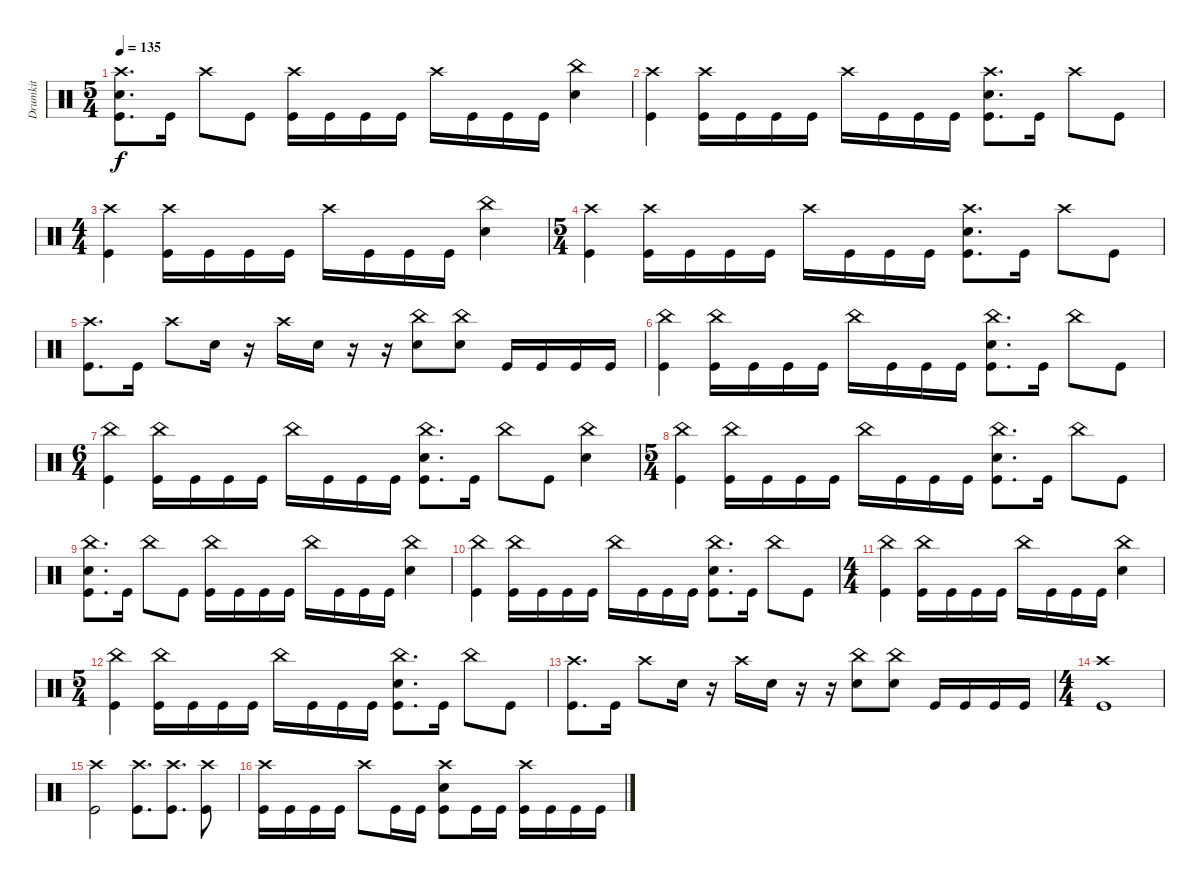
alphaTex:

\track ("Drumkit" "Drumkit") {instrument percussion}
\staff {score}
\articulation defaults
\ts (5 4)
\tempo 135
\clef neutral
\ks c
("Crash high (hit)" "Kick (hit)" "Snare (hit) 2").8{d dy f} "Kick (hit)".16 "Crash high (hit)".8 "Kick (hit)".8 ("Crash high (hit)" "Kick (hit)").16 "Kick (hit)".16 "Kick (hit)".16 "Kick (hit)".16 "Crash high (hit)".16 "Kick (hit)".16 "Kick (hit)".16 "Kick (hit)".16 ("China (hit)" "Snare (hit) 2").4 |
("Crash high (hit)" "Kick (hit)").4 ("Crash high (hit)" "Kick (hit)").16 "Kick (hit)".16 "Kick (hit)".16 "Kick (hit)".16 "Crash high (hit)".16 "Kick (hit)".16 "Kick (hit)".16 "Kick (hit)".16 ("Crash high (hit)" "Kick (hit)" "Snare (hit) 2").8{d} "Kick (hit)".16 "Crash high (hit)".8 "Kick (hit)".8 |
\ts (4 4)
("Crash high (hit)" "Kick (hit)").4 ("Crash high (hit)" "Kick (hit)").16 "Kick (hit)".16 "Kick (hit)".16 "Kick (hit)".16 "Crash high (hit)".16 "Kick (hit)".16 "Kick (hit)".16 "Kick (hit)".16 ("China (hit)" "Snare (hit) 2").4 |
\ts (5 4)
("Crash high (hit)" "Kick (hit)").4 ("Crash high (hit)" "Kick (hit)").16 "Kick (hit)".16 "Kick (hit)".16 "Kick (hit)".16 "Crash high (hit)".16 "Kick (hit)".16 "Kick (hit)".16 "Kick (hit)".16 ("Crash high (hit)" "Kick (hit)" "Snare (hit) 2").8{d} "Kick (hit)".16 "Crash high (hit)".8 "Kick (hit)".8 |
("Crash high (hit)" "Kick (hit)").8{d} "Kick (hit)".16 "Crash high (hit)".8 "Snare (hit) 2".16 r.16 "Crash high (hit)".16 "Snare (hit) 2".16 r.16 r.16 ("Snare (hit) 2" "China (hit)").8 ("China (hit)" "Snare (hit) 2").8 "Kick (hit)".16 "Kick (hit)".16 "Kick (hit)".16 "Kick (hit)".16 |
("China (hit)" "Kick (hit)").4 ("China (hit)" "Kick (hit)").16 "Kick (hit)".16 "Kick (hit)".16 "Kick (hit)".16 "China (hit)".16 "Kick (hit)".16 "Kick (hit)".16 "Kick (hit)".16 ("China (hit)" "Kick (hit)" "Snare (hit) 2").8{d} "Kick (hit)".16 "China (hit)".8 "Kick (hit)".8 |
\ts (6 4)
("China (hit)" "Kick (hit)").4 ("China (hit)" "Kick (hit)").16 "Kick (hit)".16 "Kick (hit)".16 "Kick (hit)".16 "China (hit)".16 "Kick (hit)".16 "Kick (hit)".16 "Kick (hit)".16 ("China (hit)" "Kick (hit)" "Snare (hit) 2").8{d} "Kick (hit)".16 "China (hit)".8 "Kick (hit)".8 ("China (hit)" "Snare (hit) 2").4 |
\ts (5 4)
("China (hit)" "Kick (hit)").4 ("China (hit)" "Kick (hit)").16 "Kick (hit)".16 "Kick (hit)".16 "Kick (hit)".16 "China (hit)".16 "Kick (hit)".16 "Kick (hit)".16 "Kick (hit)".16 ("China (hit)" "Kick (hit)" "Snare (hit) 2").8{d} "Kick (hit)".16 "China (hit)".8 "Kick (hit)".8 |
("China (hit)" "Kick (hit)" "Snare (hit) 2").8{d} "Kick (hit)".16 "China (hit)".8 "Kick (hit)".8 ("China (hit)" "Kick (hit)").16 "Kick (hit)".16 "Kick (hit)".16 "Kick (hit)".16 "China (hit)".16 "Kick (hit)".16 "Kick (hit)".16 "Kick (hit)".16 ("China (hit)" "Snare (hit) 2").4 |
("China (hit)" "Kick (hit)").4 ("China (hit)" "Kick (hit)").16 "Kick (hit)".16 "Kick (hit)".16 "Kick (hit)".16 "China (hit)".16 "Kick (hit)".16 "Kick (hit)".16 "Kick (hit)".16 ("China (hit)" "Kick (hit)" "Snare (hit) 2").8{d} "Kick (hit)".16 "China (hit)".8 "Kick (hit)".8 |
\ts (4 4)
("China (hit)" "Kick (hit)").4 ("China (hit)" "Kick (hit)").16 "Kick (hit)".16 "Kick (hit)".16 "Kick (hit)".16 "China (hit)".16 "Kick (hit)".16 "Kick (hit)".16 "Kick (hit)".16 ("China (hit)" "Snare (hit) 2").4 |
\ts (5 4)
("China (hit)" "Kick (hit)").4 ("China (hit)" "Kick (hit)").16 "Kick (hit)".16 "Kick (hit)".16 "Kick (hit)".16 "China (hit)".16 "Kick (hit)".16 "Kick (hit)".16 "Kick (hit)".16 ("China (hit)" "Kick (hit)" "Snare (hit) 2").8{d} "Kick (hit)".16 "China (hit)".8 "Kick (hit)".8 |
("Crash high (hit)" "Kick (hit)").8{d} "Kick (hit)".16 "Crash high (hit)".8 "Snare (hit) 2".16 r.16 "Crash high (hit)".16 "Snare (hit) 2".16 r.16 r.16 ("Snare (hit) 2" "China (hit)").8 ("China (hit)" "Snare (hit) 2").8 "Kick (hit)".16 "Kick (hit)".16 "Kick (hit)".16 "Kick (hit)".16 |
\ts (4 4)
("Crash high (hit)" "Kick (hit)").1 |
("Crash high (hit)" "Kick (hit)").2 ("Crash high (hit)" "Kick (hit)").8{d} ("Crash high (hit)" "Kick (hit)").8{d} ("Kick (hit)" "Crash high (hit)").8 |
("Crash high (hit)" "Kick (hit)").16 "Kick (hit)".16 "Kick (hit)".16 "Kick (hit)".16 "Crash high (hit)".8 "Kick (hit)".16 "Kick (hit)".16 ("Crash high (hit)" "Snare (hit) 2" "Kick (hit)").8 "Kick (hit)".16 "Kick (hit)".16 ("Crash high (hit)" "Kick (hit)").16 "Kick (hit)".16 "Kick (hit)".16 "Kick (hit)".16
